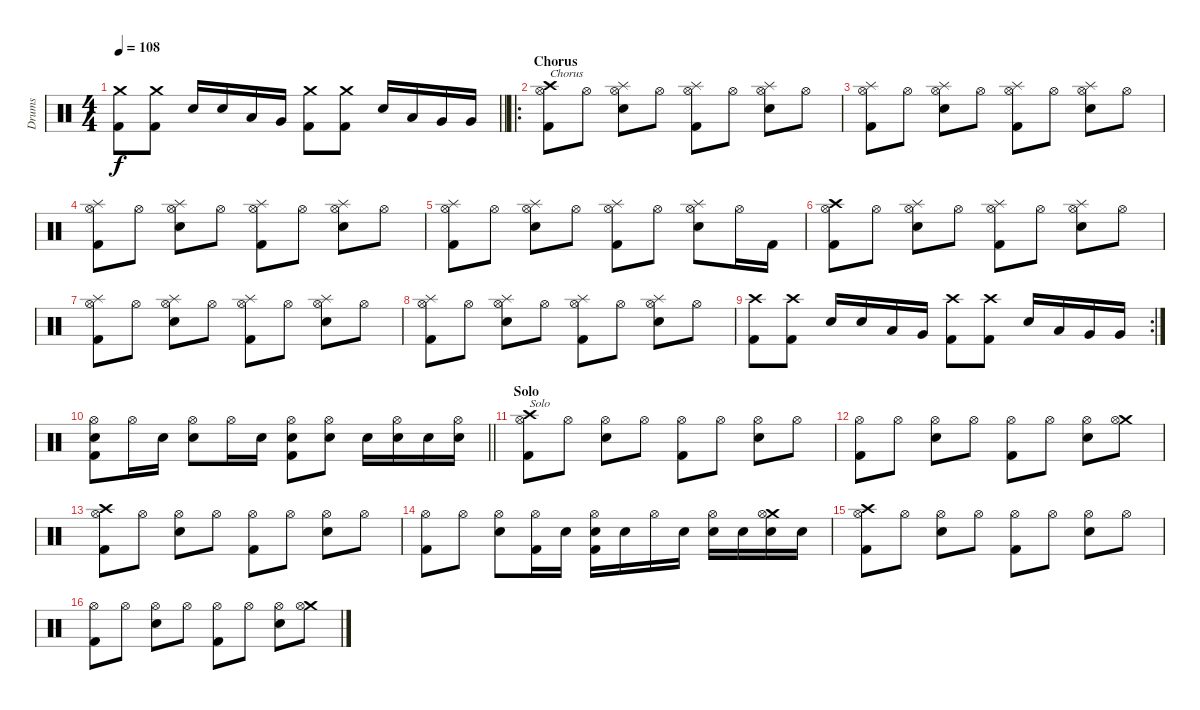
\track ("Drums" "Drums") {instrument percussion}
\staff {score}
\articulation defaults
\ts (4 4)
\tempo 108
\clef neutral
\barLineRight lightlight
\ks c
("Crash medium (hit)" "Kick (hit) 2").8{dy f} ("Crash medium (hit)" "Kick (hit) 2").8 "Snare (hit) 2".16 "Snare (hit) 2".16 "Low Tom (hit)".16 "Very Low Tom (hit)".16 ("Crash medium (hit)" "Kick (hit) 2").8 ("Crash medium (hit)" "Kick (hit) 2").8 "Snare (hit) 2".16 "Low Tom (hit)".16 "Very Low Tom (hit)".16 "Very Low Tom (hit)".16 |
\ro
\section ("" "Chorus")
("Crash high (hit)" "Hi-Hat (open)" "Kick (hit) 2").8{txt "Chorus"} "Hi-Hat (open)".8 ("Splash (hit)" "Hi-Hat (open)" "Snare (hit) 2").8 "Hi-Hat (open)".8 ("Splash (hit)" "Hi-Hat (open)" "Kick (hit) 2").8 "Hi-Hat (open)".8 ("Splash (hit)" "Hi-Hat (open)" "Snare (hit) 2").8 "Hi-Hat (open)".8 |
("Splash (hit)" "Hi-Hat (open)" "Kick (hit) 2").8 "Hi-Hat (open)".8 ("Splash (hit)" "Hi-Hat (open)" "Snare (hit) 2").8 "Hi-Hat (open)".8 ("Splash (hit)" "Hi-Hat (open)" "Kick (hit) 2").8 "Hi-Hat (open)".8 ("Splash (hit)" "Hi-Hat (open)" "Snare (hit) 2").8 "Hi-Hat (open)".8 |
("Splash (hit)" "Hi-Hat (open)" "Kick (hit) 2").8 "Hi-Hat (open)".8 ("Splash (hit)" "Hi-Hat (open)" "Snare (hit) 2").8 "Hi-Hat (open)".8 ("Splash (hit)" "Hi-Hat (open)" "Kick (hit) 2").8 "Hi-Hat (open)".8 ("Splash (hit)" "Hi-Hat (open)" "Snare (hit) 2").8 "Hi-Hat (open)".8 |
("Splash (hit)" "Hi-Hat (open)" "Kick (hit) 2").8 "Hi-Hat (open)".8 ("Splash (hit)" "Hi-Hat (open)" "Snare (hit) 2").8 "Hi-Hat (open)".8 ("Splash (hit)" "Hi-Hat (open)" "Kick (hit) 2").8 "Hi-Hat (open)".8 ("Splash (hit)" "Hi-Hat (open)" "Snare (hit) 2").8 "Hi-Hat (open)".16 "Kick (hit) 2".16 |
("Crash high (hit)" "Hi-Hat (open)" "Kick (hit) 2").8 "Hi-Hat (open)".8 ("Splash (hit)" "Hi-Hat (open)" "Snare (hit) 2").8 "Hi-Hat (open)".8 ("Splash (hit)" "Hi-Hat (open)" "Kick (hit) 2").8 "Hi-Hat (open)".8 ("Splash (hit)" "Hi-Hat (open)" "Snare (hit) 2").8 "Hi-Hat (open)".8 |
("Splash (hit)" "Hi-Hat (open)" "Kick (hit) 2").8 "Hi-Hat (open)".8 ("Splash (hit)" "Hi-Hat (open)" "Snare (hit) 2").8 "Hi-Hat (open)".8 ("Splash (hit)" "Hi-Hat (open)" "Kick (hit) 2").8 "Hi-Hat (open)".8 ("Splash (hit)" "Hi-Hat (open)" "Snare (hit) 2").8 "Hi-Hat (open)".8 |
("Splash (hit)" "Hi-Hat (open)" "Kick (hit) 2").8 "Hi-Hat (open)".8 ("Splash (hit)" "Hi-Hat (open)" "Snare (hit) 2").8 "Hi-Hat (open)".8 ("Splash (hit)" "Hi-Hat (open)" "Kick (hit) 2").8 "Hi-Hat (open)".8 ("Splash (hit)" "Hi-Hat (open)" "Snare (hit) 2").8 "Hi-Hat (open)".8 |
\rc 2
("Crash high (hit)" "Kick (hit) 2").8 ("Crash high (hit)" "Kick (hit) 2").8 "Snare (hit) 2".16 "Snare (hit) 2".16 "Low Tom (hit)".16 "Very Low Tom (hit)".16 ("Crash high (hit)" "Kick (hit) 2").8 ("Crash high (hit)" "Kick (hit) 2").8 "Snare (hit) 2".16 "Low Tom (hit)".16 "Very Low Tom (hit)".16 "Very Low Tom (hit)".16 |
\barLineRight lightlight
("Hi-Hat (open)" "Snare (hit) 2" "Kick (hit) 2").8 "Hi-Hat (open)".16 "Snare (hit) 2".16 ("Hi-Hat (open)" "Snare (hit) 2").8 "Hi-Hat (open)".16 "Snare (hit) 2".16 ("Hi-Hat (open)" "Snare (hit) 2" "Kick (hit) 2").8 ("Hi-Hat (open)" "Snare (hit) 2").8 "Snare (hit) 2".16 ("Hi-Hat (open)" "Snare (hit) 2").16 "Snare (hit) 2".16 ("Hi-Hat (open)" "Snare (hit) 2").16 |
\section ("" "Solo")
("Crash high (hit)" "Hi-Hat (open)" "Kick (hit) 2").8{txt "Solo"} "Hi-Hat (open)".8 ("Hi-Hat (open)" "Snare (hit) 2").8 "Hi-Hat (open)".8 ("Hi-Hat (open)" "Kick (hit) 2").8 "Hi-Hat (open)".8 ("Hi-Hat (open)" "Snare (hit) 2").8 "Hi-Hat (open)".8 |
("Hi-Hat (open)" "Kick (hit) 2").8 "Hi-Hat (open)".8 ("Hi-Hat (open)" "Snare (hit) 2").8 "Hi-Hat (open)".8 ("Hi-Hat (open)" "Kick (hit) 2").8 "Hi-Hat (open)".8 ("Hi-Hat (open)" "Snare (hit) 2").8 ("Crash medium (hit)" "Hi-Hat (open)").8 |
("Crash high (hit)" "Hi-Hat (open)" "Kick (hit) 2").8 "Hi-Hat (open)".8 ("Hi-Hat (open)" "Snare (hit) 2").8 "Hi-Hat (open)".8 ("Hi-Hat (open)" "Kick (hit) 2").8 "Hi-Hat (open)".8 ("Hi-Hat (open)" "Snare (hit) 2").8 "Hi-Hat (open)".8 |
("Hi-Hat (open)" "Kick (hit) 2").8 "Hi-Hat (open)".8 ("Hi-Hat (open)" "Snare (hit) 2").8 ("Hi-Hat (open)" "Kick (hit) 2").16 "Snare (hit) 2".16 ("Hi-Hat (open)" "Snare (hit) 2" "Kick (hit) 2").16 "Snare (hit) 2".16 "Hi-Hat (open)".16 "Snare (hit) 2".16 ("Hi-Hat (open)" "Snare (hit) 2").16 "Snare (hit) 2".16 ("Crash medium (hit)" "Hi-Hat (open)" "Snare (hit) 2").16 "Snare (hit) 2".16 |
("Crash high (hit)" "Hi-Hat (open)" "Kick (hit) 2").8 "Hi-Hat (open)".8 ("Hi-Hat (open)" "Snare (hit) 2").8 "Hi-Hat (open)".8 ("Hi-Hat (open)" "Kick (hit) 2").8 "Hi-Hat (open)".8 ("Hi-Hat (open)" "Snare (hit) 2").8 "Hi-Hat (open)".8 |
("Hi-Hat (open)" "Kick (hit) 2").8 "Hi-Hat (open)".8 ("Hi-Hat (open)" "Snare (hit) 2").8 "Hi-Hat (open)".8 ("Hi-Hat (open)" "Kick (hit) 2").8 "Hi-Hat (open)".8 ("Hi-Hat (open)" "Snare (hit) 2").8 ("Crash medium (hit)" "Hi-Hat (open)").8
